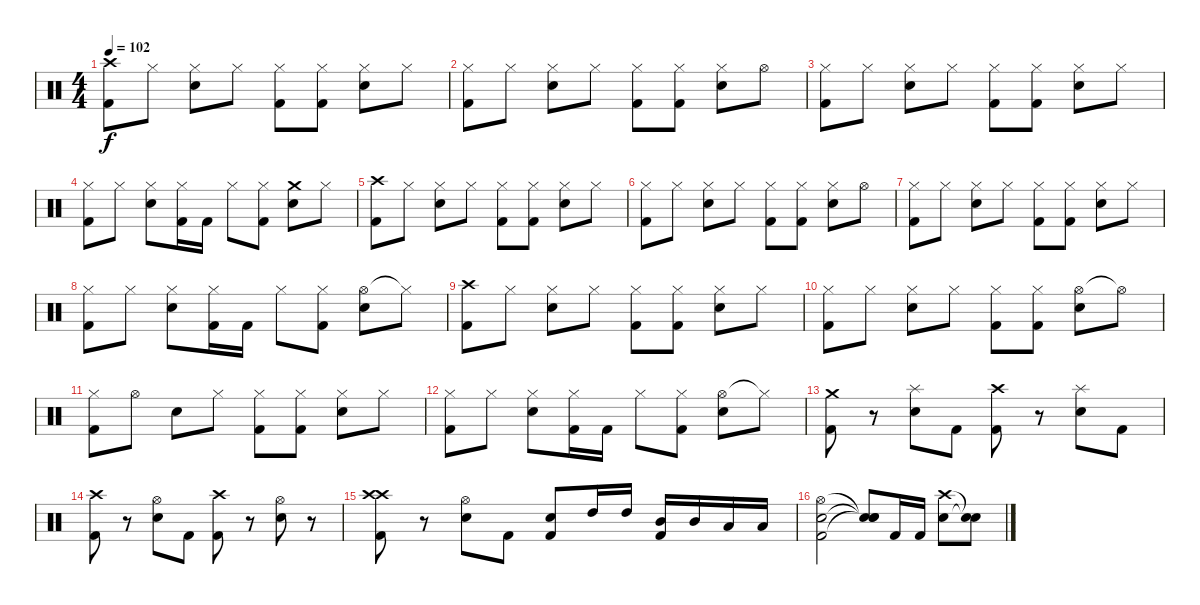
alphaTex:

\track "" {instrument percussion}
\staff {score}
\articulation defaults
\ts (4 4)
\tempo 102
\clef neutral
\ks c
("Crash high (hit)" "Kick (hit) 2").8{dy f} "Hi-Hat (closed)".8 ("Hi-Hat (closed)" "Snare (hit) 2").8 "Hi-Hat (closed)".8 ("Hi-Hat (closed)" "Kick (hit) 2").8 ("Hi-Hat (closed)" "Kick (hit) 2").8 ("Hi-Hat (closed)" "Snare (hit) 2").8 "Hi-Hat (closed)".8 |
("Hi-Hat (closed)" "Kick (hit) 2").8 "Hi-Hat (closed)".8 ("Hi-Hat (closed)" "Snare (hit) 2").8 "Hi-Hat (closed)".8 ("Hi-Hat (closed)" "Kick (hit) 2").8 ("Hi-Hat (closed)" "Kick (hit) 2").8 ("Hi-Hat (closed)" "Snare (hit) 2").8 "Hi-Hat (open)".8 |
("Hi-Hat (closed)" "Kick (hit) 2").8 "Hi-Hat (closed)".8 ("Hi-Hat (closed)" "Snare (hit) 2").8 "Hi-Hat (closed)".8 ("Hi-Hat (closed)" "Kick (hit) 2").8 ("Hi-Hat (closed)" "Kick (hit) 2").8 ("Hi-Hat (closed)" "Snare (hit) 2").8 "Hi-Hat (closed)".8 |
("Hi-Hat (closed)" "Kick (hit) 2").8 "Hi-Hat (closed)".8 ("Hi-Hat (closed)" "Snare (hit) 2").8 ("Hi-Hat (closed)" "Kick (hit) 2").16 "Kick (hit) 2".16 "Hi-Hat (closed)".8 ("Hi-Hat (closed)" "Kick (hit) 2").8 ("Crash medium (hit)" "Snare (hit) 2").8 "Hi-Hat (closed)".8 |
("Crash high (hit)" "Kick (hit) 2").8 "Hi-Hat (closed)".8 ("Hi-Hat (closed)" "Snare (hit) 2").8 "Hi-Hat (closed)".8 ("Hi-Hat (closed)" "Kick (hit) 2").8 ("Hi-Hat (closed)" "Kick (hit) 2").8 ("Hi-Hat (closed)" "Snare (hit) 2").8 "Hi-Hat (closed)".8 |
("Hi-Hat (closed)" "Kick (hit) 2").8 "Hi-Hat (closed)".8 ("Hi-Hat (closed)" "Snare (hit) 2").8 "Hi-Hat (closed)".8 ("Hi-Hat (closed)" "Kick (hit) 2").8 ("Hi-Hat (closed)" "Kick (hit) 2").8 ("Hi-Hat (closed)" "Snare (hit) 2").8 "Hi-Hat (open)".8 |
("Hi-Hat (closed)" "Kick (hit) 2").8 "Hi-Hat (closed)".8 ("Hi-Hat (closed)" "Snare (hit) 2").8 "Hi-Hat (closed)".8 ("Hi-Hat (closed)" "Kick (hit) 2").8 ("Hi-Hat (closed)" "Kick (hit) 2").8 ("Hi-Hat (closed)" "Snare (hit) 2").8 "Hi-Hat (closed)".8 |
("Hi-Hat (closed)" "Kick (hit) 2").8 "Hi-Hat (closed)".8 ("Hi-Hat (closed)" "Snare (hit) 2").8 ("Hi-Hat (closed)" "Kick (hit) 2").16 "Kick (hit) 2".16 "Hi-Hat (closed)".8 ("Hi-Hat (closed)" "Kick (hit) 2").8 ("Hi-Hat (open)" "Snare (hit) 2").8 "Hi-Hat (closed)"{t}.8 |
("Crash high (hit)" "Kick (hit) 2").8 "Hi-Hat (closed)".8 ("Hi-Hat (closed)" "Snare (hit) 2").8 "Hi-Hat (closed)".8 ("Hi-Hat (closed)" "Kick (hit) 2").8 ("Hi-Hat (closed)" "Kick (hit) 2").8 ("Hi-Hat (closed)" "Snare (hit) 2").8 "Hi-Hat (closed)".8 |
("Hi-Hat (closed)" "Kick (hit) 2").8 "Hi-Hat (closed)".8 ("Hi-Hat (closed)" "Snare (hit) 2").8 "Hi-Hat (closed)".8 ("Hi-Hat (closed)" "Kick (hit) 2").8 ("Hi-Hat (closed)" "Kick (hit) 2").8 ("Hi-Hat (open)" "Snare (hit) 2").8 "Hi-Hat (open)"{t}.8 |
("Hi-Hat (closed)" "Kick (hit) 2").8 "Hi-Hat (open)".8 "Snare (hit) 2".8 "Hi-Hat (closed)".8 ("Hi-Hat (closed)" "Kick (hit) 2").8 ("Hi-Hat (closed)" "Kick (hit) 2").8 ("Hi-Hat (closed)" "Snare (hit) 2").8 "Hi-Hat (closed)".8 |
("Hi-Hat (closed)" "Kick (hit) 2").8 "Hi-Hat (closed)".8 ("Hi-Hat (closed)" "Snare (hit) 2").8 ("Hi-Hat (closed)" "Kick (hit) 2").16 "Kick (hit) 2".16 "Hi-Hat (closed)".8 ("Hi-Hat (closed)" "Kick (hit) 2").8 ("Hi-Hat (open)" "Snare (hit) 2").8 "Hi-Hat (closed)"{t}.8 |
("Crash medium (hit)" "Kick (hit) 2").8 r.8 ("Snare (hit) 2" "Splash (hit)").8 "Kick (hit) 2".8 ("Crash high (hit)" "Kick (hit) 2").8 r.8 ("Snare (hit) 2" "Splash (hit)").8 "Kick (hit) 2".8 |
("Crash high (hit)" "Kick (hit) 2").8 r.8 ("Snare (hit) 2" "Hi-Hat (open)").8 "Kick (hit) 2".8 ("Crash high (hit)" "Kick (hit) 2").8 r.8 ("Snare (hit) 2" "Hi-Hat (open)").8 r.8 |
("Crash high (hit)" "Crash high (hit)" "Kick (hit) 2").8 r.8 ("Snare (hit) 2" "Hi-Hat (open)").8 "Kick (hit) 2".8 ("Snare (hit) 2" "Kick (hit) 2").8 "High Tom (hit)".16 "High Tom (hit)".16 ("Mid Tom (hit)" "Kick (hit) 2").16 "Mid Tom (hit)".16 "Low Tom (hit)".16 "Low Tom (hit)".16 |
("Snare (hit) 2" "Kick (hit) 2" "Hi-Hat (open)").2 ("Snare (hit)"{t} "Snare (hit)"{t} "Snare (hit)"{t}).8 "Kick (hit) 2".16 "Kick (hit) 2".16 ("Crash high (hit)" "Snare (hit) 2").8 ("Snare (hit)"{t} "Snare (hit)"{t}).8
